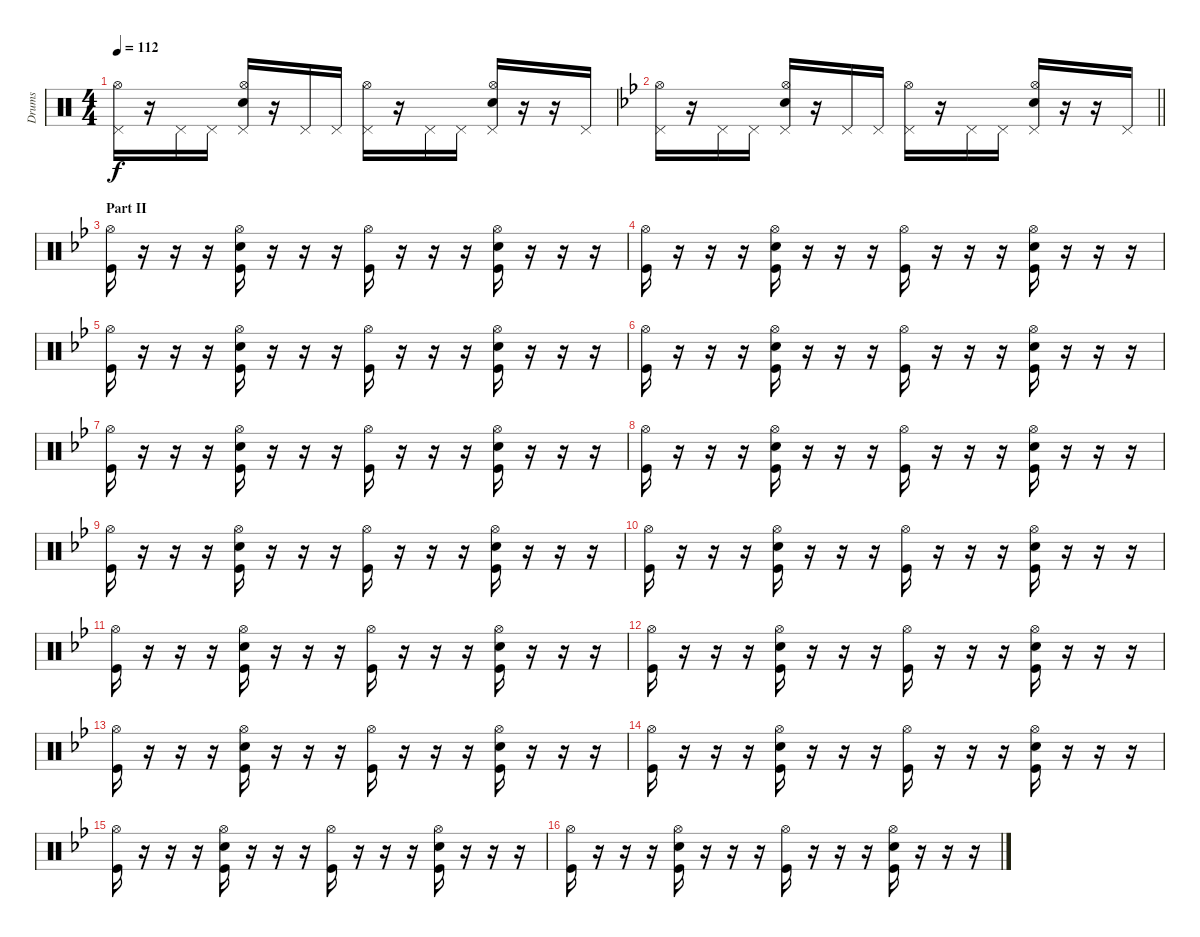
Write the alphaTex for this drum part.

\track ("Drums" "Drums") {instrument percussion}
\staff {score}
\articulation defaults
\ts (4 4)
\tempo 112
\clef neutral
\ks c
("Pedal Hi-Hat (hit)" "Hi-Hat (open)").16{dy f} r.16 "Pedal Hi-Hat (hit)".16 "Pedal Hi-Hat (hit)".16 ("Pedal Hi-Hat (hit)" "Hi-Hat (open)" "Electric Snare (hit)").16 r.16 "Pedal Hi-Hat (hit)".16 "Pedal Hi-Hat (hit)".16 ("Pedal Hi-Hat (hit)" "Hi-Hat (open)").16 r.16 "Pedal Hi-Hat (hit)".16 "Pedal Hi-Hat (hit)".16 ("Pedal Hi-Hat (hit)" "Hi-Hat (open)" "Electric Snare (hit)").16 r.16 r.16 "Pedal Hi-Hat (hit)".16 |
\barLineRight lightlight
\ks bb
("Pedal Hi-Hat (hit)" "Hi-Hat (open)").16 r.16 "Pedal Hi-Hat (hit)".16 "Pedal Hi-Hat (hit)".16 ("Pedal Hi-Hat (hit)" "Hi-Hat (open)" "Electric Snare (hit)").16 r.16 "Pedal Hi-Hat (hit)".16 "Pedal Hi-Hat (hit)".16 ("Pedal Hi-Hat (hit)" "Hi-Hat (open)").16 r.16 "Pedal Hi-Hat (hit)".16 "Pedal Hi-Hat (hit)".16 ("Pedal Hi-Hat (hit)" "Hi-Hat (open)" "Electric Snare (hit)").16 r.16 r.16 "Pedal Hi-Hat (hit)".16 |
\section ("" "Part II")
("Hi-Hat (open)" "Kick (hit)").16 r.16 r.16 r.16 ("Hi-Hat (open)" "Electric Snare (hit)" "Kick (hit)").16 r.16 r.16 r.16 ("Hi-Hat (open)" "Kick (hit)").16 r.16 r.16 r.16 ("Hi-Hat (open)" "Electric Snare (hit)" "Kick (hit)").16 r.16 r.16 r.16 |
("Hi-Hat (open)" "Kick (hit)").16 r.16 r.16 r.16 ("Hi-Hat (open)" "Electric Snare (hit)" "Kick (hit)").16 r.16 r.16 r.16 ("Hi-Hat (open)" "Kick (hit)").16 r.16 r.16 r.16 ("Hi-Hat (open)" "Electric Snare (hit)" "Kick (hit)").16 r.16 r.16 r.16 |
("Hi-Hat (open)" "Kick (hit)").16 r.16 r.16 r.16 ("Hi-Hat (open)" "Electric Snare (hit)" "Kick (hit)").16 r.16 r.16 r.16 ("Hi-Hat (open)" "Kick (hit)").16 r.16 r.16 r.16 ("Hi-Hat (open)" "Electric Snare (hit)" "Kick (hit)").16 r.16 r.16 r.16 |
("Hi-Hat (open)" "Kick (hit)").16 r.16 r.16 r.16 ("Hi-Hat (open)" "Electric Snare (hit)" "Kick (hit)").16 r.16 r.16 r.16 ("Hi-Hat (open)" "Kick (hit)").16 r.16 r.16 r.16 ("Hi-Hat (open)" "Electric Snare (hit)" "Kick (hit)").16 r.16 r.16 r.16 |
("Hi-Hat (open)" "Kick (hit)").16 r.16 r.16 r.16 ("Hi-Hat (open)" "Electric Snare (hit)" "Kick (hit)").16 r.16 r.16 r.16 ("Hi-Hat (open)" "Kick (hit)").16 r.16 r.16 r.16 ("Hi-Hat (open)" "Electric Snare (hit)" "Kick (hit)").16 r.16 r.16 r.16 |
("Hi-Hat (open)" "Kick (hit)").16 r.16 r.16 r.16 ("Hi-Hat (open)" "Electric Snare (hit)" "Kick (hit)").16 r.16 r.16 r.16 ("Hi-Hat (open)" "Kick (hit)").16 r.16 r.16 r.16 ("Hi-Hat (open)" "Electric Snare (hit)" "Kick (hit)").16 r.16 r.16 r.16 |
("Hi-Hat (open)" "Kick (hit)").16 r.16 r.16 r.16 ("Hi-Hat (open)" "Electric Snare (hit)" "Kick (hit)").16 r.16 r.16 r.16 ("Hi-Hat (open)" "Kick (hit)").16 r.16 r.16 r.16 ("Hi-Hat (open)" "Electric Snare (hit)" "Kick (hit)").16 r.16 r.16 r.16 |
("Hi-Hat (open)" "Kick (hit)").16 r.16 r.16 r.16 ("Hi-Hat (open)" "Electric Snare (hit)" "Kick (hit)").16 r.16 r.16 r.16 ("Hi-Hat (open)" "Kick (hit)").16 r.16 r.16 r.16 ("Hi-Hat (open)" "Electric Snare (hit)" "Kick (hit)").16 r.16 r.16 r.16 |
("Hi-Hat (open)" "Kick (hit)").16 r.16 r.16 r.16 ("Hi-Hat (open)" "Electric Snare (hit)" "Kick (hit)").16 r.16 r.16 r.16 ("Hi-Hat (open)" "Kick (hit)").16 r.16 r.16 r.16 ("Hi-Hat (open)" "Electric Snare (hit)" "Kick (hit)").16 r.16 r.16 r.16 |
("Hi-Hat (open)" "Kick (hit)").16 r.16 r.16 r.16 ("Hi-Hat (open)" "Electric Snare (hit)" "Kick (hit)").16 r.16 r.16 r.16 ("Hi-Hat (open)" "Kick (hit)").16 r.16 r.16 r.16 ("Hi-Hat (open)" "Electric Snare (hit)" "Kick (hit)").16 r.16 r.16 r.16 |
("Hi-Hat (open)" "Kick (hit)").16 r.16 r.16 r.16 ("Hi-Hat (open)" "Electric Snare (hit)" "Kick (hit)").16 r.16 r.16 r.16 ("Hi-Hat (open)" "Kick (hit)").16 r.16 r.16 r.16 ("Hi-Hat (open)" "Electric Snare (hit)" "Kick (hit)").16 r.16 r.16 r.16 |
("Hi-Hat (open)" "Kick (hit)").16 r.16 r.16 r.16 ("Hi-Hat (open)" "Electric Snare (hit)" "Kick (hit)").16 r.16 r.16 r.16 ("Hi-Hat (open)" "Kick (hit)").16 r.16 r.16 r.16 ("Hi-Hat (open)" "Electric Snare (hit)" "Kick (hit)").16 r.16 r.16 r.16 |
("Hi-Hat (open)" "Kick (hit)").16 r.16 r.16 r.16 ("Hi-Hat (open)" "Electric Snare (hit)" "Kick (hit)").16 r.16 r.16 r.16 ("Hi-Hat (open)" "Kick (hit)").16 r.16 r.16 r.16 ("Hi-Hat (open)" "Electric Snare (hit)" "Kick (hit)").16 r.16 r.16 r.16 |
("Hi-Hat (open)" "Kick (hit)").16 r.16 r.16 r.16 ("Hi-Hat (open)" "Electric Snare (hit)" "Kick (hit)").16 r.16 r.16 r.16 ("Hi-Hat (open)" "Kick (hit)").16 r.16 r.16 r.16 ("Hi-Hat (open)" "Electric Snare (hit)" "Kick (hit)").16 r.16 r.16 r.16
